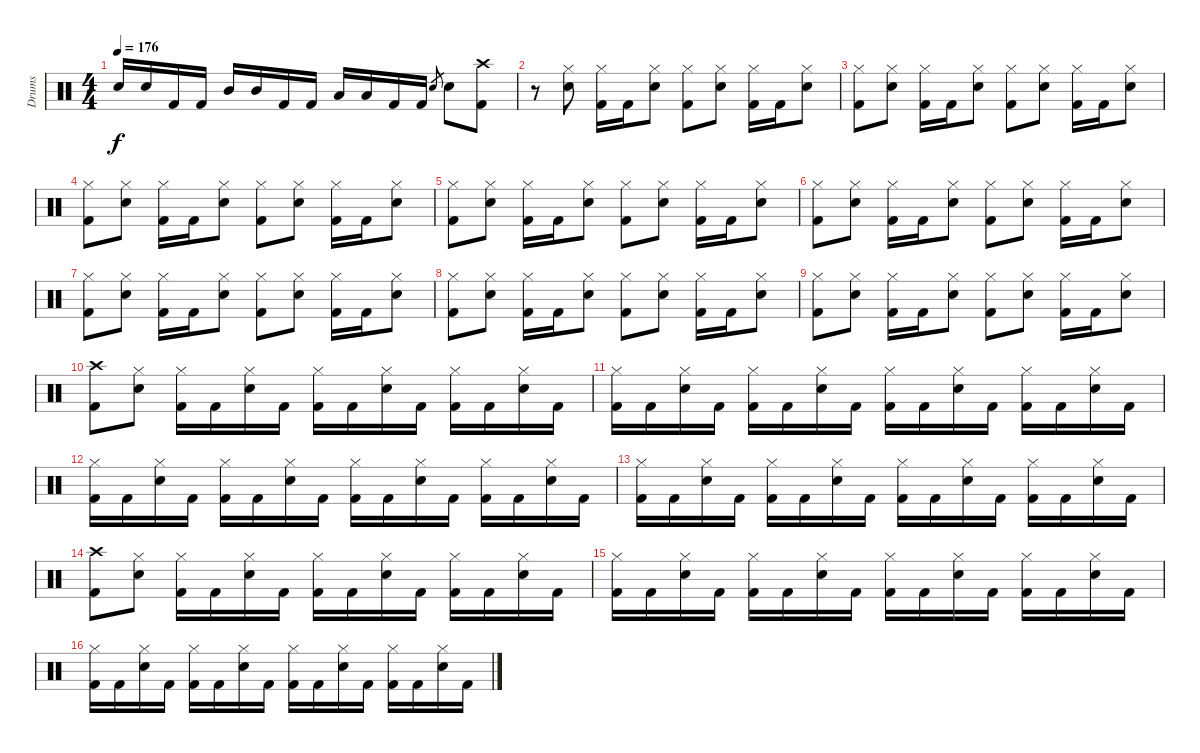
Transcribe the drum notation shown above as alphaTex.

\track ("Drums" "Drums") {instrument percussion}
\staff {score}
\articulation defaults
\ts (4 4)
\tempo 176
\clef neutral
\ks c "Electric Snare (hit)".16{dy f} "Electric Snare (hit)".16 "Kick (hit) 2".16 "Kick (hit) 2".16 "Mid Tom (hit)".16 "Mid Tom (hit)".16 "Kick (hit) 2".16 "Kick (hit) 2".16 "Low Tom (hit)".16 "Low Tom (hit)".16 "Kick (hit) 2".16 "Kick (hit) 2".16 "Electric Snare (hit)".8{gr} "Electric Snare (hit)".8
("Crash high (hit)" "Kick (hit) 2").8 |
r.8 ("Hi-Hat (closed)" "Electric Snare (hit)").8 ("Hi-Hat (closed)" "Kick (hit) 2").16 "Kick (hit) 2".16 ("Hi-Hat (closed)" "Electric Snare (hit)").8 ("Hi-Hat (closed)" "Kick (hit) 2").8 ("Hi-Hat (closed)" "Electric Snare (hit)").8 ("Hi-Hat (closed)" "Kick (hit) 2").16 "Kick (hit) 2".16 ("Hi-Hat (closed)" "Electric Snare (hit)").8 |
("Hi-Hat (closed)" "Kick (hit) 2").8 ("Hi-Hat (closed)" "Electric Snare (hit)").8 ("Hi-Hat (closed)" "Kick (hit) 2").16 "Kick (hit) 2".16 ("Hi-Hat (closed)" "Electric Snare (hit)").8 ("Hi-Hat (closed)" "Kick (hit) 2").8 ("Hi-Hat (closed)" "Electric Snare (hit)").8 ("Hi-Hat (closed)" "Kick (hit) 2").16 "Kick (hit) 2".16 ("Hi-Hat (closed)" "Electric Snare (hit)").8 |
("Hi-Hat (closed)" "Kick (hit) 2").8 ("Hi-Hat (closed)" "Electric Snare (hit)").8 ("Hi-Hat (closed)" "Kick (hit) 2").16 "Kick (hit) 2".16 ("Hi-Hat (closed)" "Electric Snare (hit)").8 ("Hi-Hat (closed)" "Kick (hit) 2").8 ("Hi-Hat (closed)" "Electric Snare (hit)").8 ("Hi-Hat (closed)" "Kick (hit) 2").16 "Kick (hit) 2".16 ("Hi-Hat (closed)" "Electric Snare (hit)").8 |
("Hi-Hat (closed)" "Kick (hit) 2").8 ("Hi-Hat (closed)" "Electric Snare (hit)").8 ("Hi-Hat (closed)" "Kick (hit) 2").16 "Kick (hit) 2".16 ("Hi-Hat (closed)" "Electric Snare (hit)").8 ("Hi-Hat (closed)" "Kick (hit) 2").8 ("Hi-Hat (closed)" "Electric Snare (hit)").8 ("Hi-Hat (closed)" "Kick (hit) 2").16 "Kick (hit) 2".16 ("Hi-Hat (closed)" "Electric Snare (hit)").8 |
("Hi-Hat (closed)" "Kick (hit) 2").8 ("Hi-Hat (closed)" "Electric Snare (hit)").8 ("Hi-Hat (closed)" "Kick (hit) 2").16 "Kick (hit) 2".16 ("Hi-Hat (closed)" "Electric Snare (hit)").8 ("Hi-Hat (closed)" "Kick (hit) 2").8 ("Hi-Hat (closed)" "Electric Snare (hit)").8 ("Hi-Hat (closed)" "Kick (hit) 2").16 "Kick (hit) 2".16 ("Hi-Hat (closed)" "Electric Snare (hit)").8 |
("Hi-Hat (closed)" "Kick (hit) 2").8 ("Hi-Hat (closed)" "Electric Snare (hit)").8 ("Hi-Hat (closed)" "Kick (hit) 2").16 "Kick (hit) 2".16 ("Hi-Hat (closed)" "Electric Snare (hit)").8 ("Hi-Hat (closed)" "Kick (hit) 2").8 ("Hi-Hat (closed)" "Electric Snare (hit)").8 ("Hi-Hat (closed)" "Kick (hit) 2").16 "Kick (hit) 2".16 ("Hi-Hat (closed)" "Electric Snare (hit)").8 |
("Hi-Hat (closed)" "Kick (hit) 2").8 ("Hi-Hat (closed)" "Electric Snare (hit)").8 ("Hi-Hat (closed)" "Kick (hit) 2").16 "Kick (hit) 2".16 ("Hi-Hat (closed)" "Electric Snare (hit)").8 ("Hi-Hat (closed)" "Kick (hit) 2").8 ("Hi-Hat (closed)" "Electric Snare (hit)").8 ("Hi-Hat (closed)" "Kick (hit) 2").16 "Kick (hit) 2".16 ("Hi-Hat (closed)" "Electric Snare (hit)").8 |
("Hi-Hat (closed)" "Kick (hit) 2").8 ("Hi-Hat (closed)" "Electric Snare (hit)").8 ("Hi-Hat (closed)" "Kick (hit) 2").16 "Kick (hit) 2".16 ("Hi-Hat (closed)" "Electric Snare (hit)").8 ("Hi-Hat (closed)" "Kick (hit) 2").8 ("Hi-Hat (closed)" "Electric Snare (hit)").8 ("Hi-Hat (closed)" "Kick (hit) 2").16 "Kick (hit) 2".16 ("Hi-Hat (closed)" "Electric Snare (hit)").8 |
("Crash high (hit)" "Kick (hit) 2").8 ("Hi-Hat (closed)" "Electric Snare (hit)").8 ("Hi-Hat (closed)" "Kick (hit) 2").16 "Kick (hit) 2".16 ("Hi-Hat (closed)" "Electric Snare (hit)").16 "Kick (hit) 2".16 ("Hi-Hat (closed)" "Kick (hit) 2").16 "Kick (hit) 2".16 ("Hi-Hat (closed)" "Electric Snare (hit)").16 "Kick (hit) 2".16 ("Hi-Hat (closed)" "Kick (hit) 2").16 "Kick (hit) 2".16 ("Hi-Hat (closed)" "Electric Snare (hit)").16 "Kick (hit) 2".16 |
("Hi-Hat (closed)" "Kick (hit) 2").16 "Kick (hit) 2".16 ("Hi-Hat (closed)" "Electric Snare (hit)").16 "Kick (hit) 2".16 ("Hi-Hat (closed)" "Kick (hit) 2").16 "Kick (hit) 2".16 ("Hi-Hat (closed)" "Electric Snare (hit)").16 "Kick (hit) 2".16 ("Hi-Hat (closed)" "Kick (hit) 2").16 "Kick (hit) 2".16 ("Hi-Hat (closed)" "Electric Snare (hit)").16 "Kick (hit) 2".16 ("Hi-Hat (closed)" "Kick (hit) 2").16 "Kick (hit) 2".16 ("Hi-Hat (closed)" "Electric Snare (hit)").16 "Kick (hit) 2".16 |
("Hi-Hat (closed)" "Kick (hit) 2").16 "Kick (hit) 2".16 ("Hi-Hat (closed)" "Electric Snare (hit)").16 "Kick (hit) 2".16 ("Hi-Hat (closed)" "Kick (hit) 2").16 "Kick (hit) 2".16 ("Hi-Hat (closed)" "Electric Snare (hit)").16 "Kick (hit) 2".16 ("Hi-Hat (closed)" "Kick (hit) 2").16 "Kick (hit) 2".16 ("Hi-Hat (closed)" "Electric Snare (hit)").16 "Kick (hit) 2".16 ("Hi-Hat (closed)" "Kick (hit) 2").16 "Kick (hit) 2".16 ("Hi-Hat (closed)" "Electric Snare (hit)").16 "Kick (hit) 2".16 |
("Hi-Hat (closed)" "Kick (hit) 2").16 "Kick (hit) 2".16 ("Hi-Hat (closed)" "Electric Snare (hit)").16 "Kick (hit) 2".16 ("Hi-Hat (closed)" "Kick (hit) 2").16 "Kick (hit) 2".16 ("Hi-Hat (closed)" "Electric Snare (hit)").16 "Kick (hit) 2".16 ("Hi-Hat (closed)" "Kick (hit) 2").16 "Kick (hit) 2".16 ("Hi-Hat (closed)" "Electric Snare (hit)").16 "Kick (hit) 2".16 ("Hi-Hat (closed)" "Kick (hit) 2").16 "Kick (hit) 2".16 ("Hi-Hat (closed)" "Electric Snare (hit)").16 "Kick (hit) 2".16 |
("Crash high (hit)" "Kick (hit) 2").8 ("Hi-Hat (closed)" "Electric Snare (hit)").8 ("Hi-Hat (closed)" "Kick (hit) 2").16 "Kick (hit) 2".16 ("Hi-Hat (closed)" "Electric Snare (hit)").16 "Kick (hit) 2".16 ("Hi-Hat (closed)" "Kick (hit) 2").16 "Kick (hit) 2".16 ("Hi-Hat (closed)" "Electric Snare (hit)").16 "Kick (hit) 2".16 ("Hi-Hat (closed)" "Kick (hit) 2").16 "Kick (hit) 2".16 ("Hi-Hat (closed)" "Electric Snare (hit)").16 "Kick (hit) 2".16 |
("Hi-Hat (closed)" "Kick (hit) 2").16 "Kick (hit) 2".16 ("Hi-Hat (closed)" "Electric Snare (hit)").16 "Kick (hit) 2".16 ("Hi-Hat (closed)" "Kick (hit) 2").16 "Kick (hit) 2".16 ("Hi-Hat (closed)" "Electric Snare (hit)").16 "Kick (hit) 2".16 ("Hi-Hat (closed)" "Kick (hit) 2").16 "Kick (hit) 2".16 ("Hi-Hat (closed)" "Electric Snare (hit)").16 "Kick (hit) 2".16 ("Hi-Hat (closed)" "Kick (hit) 2").16 "Kick (hit) 2".16 ("Hi-Hat (closed)" "Electric Snare (hit)").16 "Kick (hit) 2".16 |
("Hi-Hat (closed)" "Kick (hit) 2").16 "Kick (hit) 2".16 ("Hi-Hat (closed)" "Electric Snare (hit)").16 "Kick (hit) 2".16 ("Hi-Hat (closed)" "Kick (hit) 2").16 "Kick (hit) 2".16 ("Hi-Hat (closed)" "Electric Snare (hit)").16 "Kick (hit) 2".16 ("Hi-Hat (closed)" "Kick (hit) 2").16 "Kick (hit) 2".16 ("Hi-Hat (closed)" "Electric Snare (hit)").16 "Kick (hit) 2".16 ("Hi-Hat (closed)" "Kick (hit) 2").16 "Kick (hit) 2".16 ("Hi-Hat (closed)" "Electric Snare (hit)").16 "Kick (hit) 2".16
